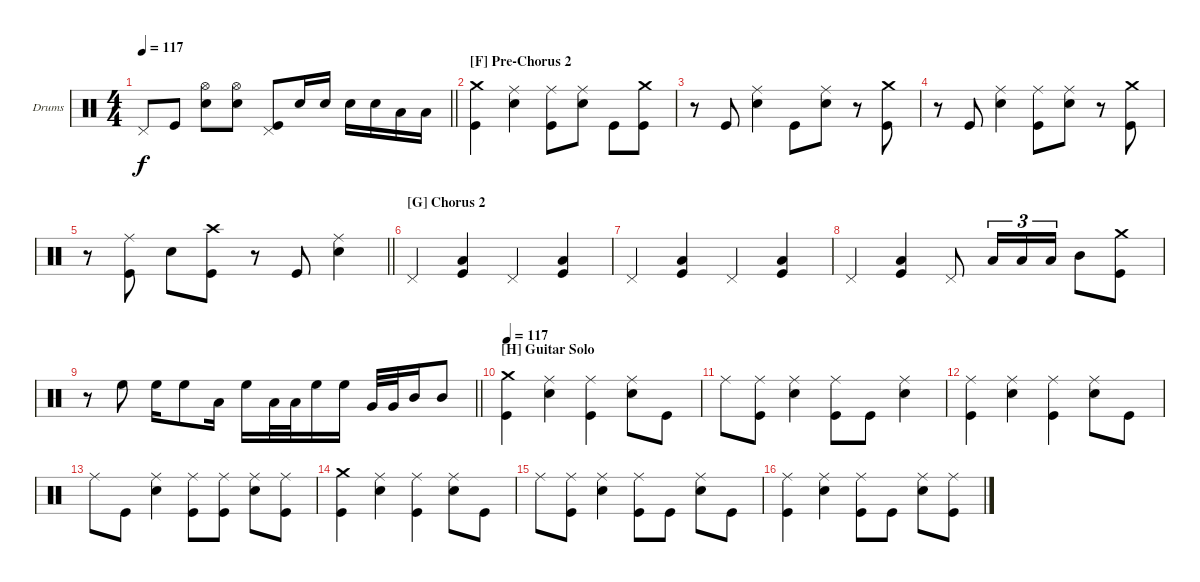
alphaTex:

\bracketExtendMode groupsimilarinstruments
\firstSystemTrackNameOrientation horizontal
\otherSystemsTrackNameOrientation horizontal
\track ("Vinny Appice" "Drums") {instrument percussion}
\staff {score}
\articulation defaults
\ts (4 4)
\tempo 117
\clef neutral
\barLineRight lightlight
\ks c "Pedal Hi-Hat (hit)".8{dy f} "Kick (hit)".8
("Hi-Hat (open)" "Snare (hit) 2").8 ("Hi-Hat (open)" "Snare (hit) 2").8 ("Pedal Hi-Hat (hit)" "Kick (hit)").8 "Snare (hit) 2".16 "Snare (hit) 2".16 "Snare (hit) 2".16 "Snare (hit) 2".16 "Low Tom (hit)".16 "Low Tom (hit)".16 |
\section ("F" "Pre-Chorus 2")
("Kick (hit)" "Crash medium (hit)").4 ("Ride (middle)" "Snare (hit) 2").4 ("Ride (middle)" "Kick (hit)").8 ("Ride (middle)" "Snare (hit) 2").8 "Kick (hit)".8 ("Kick (hit)" "Crash medium (hit)").8 |
r.8 "Kick (hit)".8 ("Ride (middle)" "Snare (hit) 2").4 "Kick (hit)".8 ("Ride (middle)" "Snare (hit) 2").8 r.8 ("Crash medium (hit)" "Kick (hit)").8 |
r.8 "Kick (hit)".8 ("Ride (middle)" "Snare (hit) 2").4 ("Ride (middle)" "Kick (hit)").8 ("Ride (middle)" "Snare (hit) 2").8 r.8 ("Kick (hit)" "Crash medium (hit)").8 |
\barLineRight lightlight
r.8 ("Ride (middle)" "Kick (hit)").8 "Snare (hit) 2".8 ("Kick (hit)" "Crash high (hit)").8 r.8 "Kick (hit)".8 ("Ride (middle)" "Snare (hit) 2").4 |
\section ("G" "Chorus 2")
"Pedal Hi-Hat (hit)".4 ("Low Tom (hit)" "Kick (hit)").4 "Pedal Hi-Hat (hit)".4 ("Low Tom (hit)" "Kick (hit)").4 |
"Pedal Hi-Hat (hit)".4 ("Low Tom (hit)" "Kick (hit)").4 "Pedal Hi-Hat (hit)".4 ("Low Tom (hit)" "Kick (hit)").4 |
"Pedal Hi-Hat (hit)".4 ("Low Tom (hit)" "Kick (hit)").4 "Pedal Hi-Hat (hit)".8 "Low Tom (hit)".16{tu (3 2)} "Low Tom (hit)".16{tu (3 2)} "Low Tom (hit)".16{tu (3 2)} "Mid Tom (hit)".8 ("Kick (hit)" "Crash medium (hit)").8 |
\barLineRight lightlight
r.8 "High Floor Tom (hit)".8 "High Floor Tom (hit)".16 "High Floor Tom (hit)".8 "Low Tom (hit)".16 "High Floor Tom (hit)".16 "Low Tom (hit)".32 "Low Tom (hit)".32 "High Floor Tom (hit)".16 "High Floor Tom (hit)".16 "Very Low Tom (hit)".32 "Very Low Tom (hit)".32 "Mid Tom (hit)".16 "Mid Tom (hit)".8 |
\section ("H" "Guitar Solo")
\tempo 117
("Kick (hit)" "Crash medium (hit)").4 ("Ride (middle)" "Snare (hit) 2").4 ("Ride (middle)" "Kick (hit)").4 ("Ride (middle)" "Snare (hit) 2").8 "Kick (hit)".8 |
"Ride (middle)".8 ("Ride (middle)" "Kick (hit)").8 ("Ride (middle)" "Snare (hit) 2").4 ("Ride (middle)" "Kick (hit)").8 "Kick (hit)".8 ("Ride (middle)" "Snare (hit) 2").4 |
("Ride (middle)" "Kick (hit)").4 ("Ride (middle)" "Snare (hit) 2").4 ("Ride (middle)" "Kick (hit)").4 ("Ride (middle)" "Snare (hit) 2").8 "Kick (hit)".8 |
"Ride (middle)".8 "Kick (hit)".8 ("Ride (middle)" "Snare (hit) 2").4 ("Ride (middle)" "Kick (hit)").8 ("Ride (middle)" "Kick (hit)").8 ("Snare (hit) 2" "Ride (middle)").8 ("Kick (hit)" "Ride (middle)").8 |
("Crash medium (hit)" "Kick (hit)").4 ("Ride (middle)" "Snare (hit) 2").4 ("Ride (middle)" "Kick (hit)").4 ("Ride (middle)" "Snare (hit) 2").8 "Kick (hit)".8 |
"Ride (middle)".8 ("Ride (middle)" "Kick (hit)").8 ("Ride (middle)" "Snare (hit) 2").4 ("Ride (middle)" "Kick (hit)").8 "Kick (hit)".8 ("Ride (middle)" "Snare (hit) 2").8 "Kick (hit)".8 |
("Ride (middle)" "Kick (hit)").4 ("Ride (middle)" "Snare (hit) 2").4 ("Kick (hit)" "Ride (middle)").8 "Kick (hit)".8 ("Ride (middle)" "Snare (hit) 2").8 ("Ride (middle)" "Kick (hit)").8
